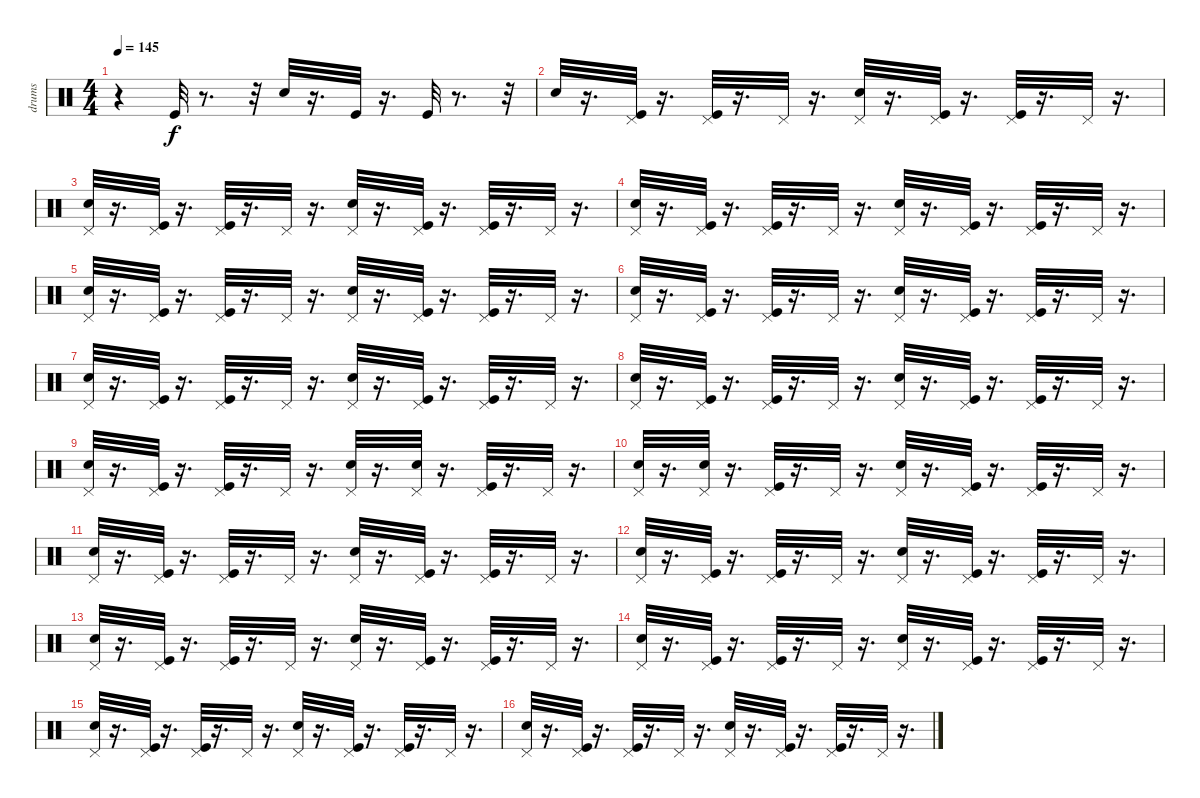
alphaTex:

\track ("drums" "drums") {instrument percussion}
\staff {score}
\articulation defaults
\ts (4 4)
\tempo 145
\clef neutral
\ks c
r.4{dy f} "Kick (hit)".32 r.8{d} r.32 "Electric Snare (hit)".32 r.16{d} "Kick (hit)".32 r.16{d} "Kick (hit)".32 r.8{d} r.32 |
"Electric Snare (hit)".32 r.16{d} ("Pedal Hi-Hat (hit)" "Kick (hit)").32 r.16{d} ("Pedal Hi-Hat (hit)" "Kick (hit)").32 r.16{d} "Pedal Hi-Hat (hit)".32 r.16{d} ("Pedal Hi-Hat (hit)" "Electric Snare (hit)").32 r.16{d} ("Pedal Hi-Hat (hit)" "Kick (hit)").32 r.16{d} ("Pedal Hi-Hat (hit)" "Kick (hit)").32 r.16{d} "Pedal Hi-Hat (hit)".32 r.16{d} |
("Pedal Hi-Hat (hit)" "Electric Snare (hit)").32 r.16{d} ("Pedal Hi-Hat (hit)" "Kick (hit)").32 r.16{d} ("Pedal Hi-Hat (hit)" "Kick (hit)").32 r.16{d} "Pedal Hi-Hat (hit)".32 r.16{d} ("Pedal Hi-Hat (hit)" "Electric Snare (hit)").32 r.16{d} ("Pedal Hi-Hat (hit)" "Kick (hit)").32 r.16{d} ("Pedal Hi-Hat (hit)" "Kick (hit)").32 r.16{d} "Pedal Hi-Hat (hit)".32 r.16{d} |
("Pedal Hi-Hat (hit)" "Electric Snare (hit)").32 r.16{d} ("Pedal Hi-Hat (hit)" "Kick (hit)").32 r.16{d} ("Pedal Hi-Hat (hit)" "Kick (hit)").32 r.16{d} "Pedal Hi-Hat (hit)".32 r.16{d} ("Pedal Hi-Hat (hit)" "Electric Snare (hit)").32 r.16{d} ("Pedal Hi-Hat (hit)" "Kick (hit)").32 r.16{d} ("Pedal Hi-Hat (hit)" "Kick (hit)").32 r.16{d} "Pedal Hi-Hat (hit)".32 r.16{d} |
("Pedal Hi-Hat (hit)" "Electric Snare (hit)").32 r.16{d} ("Pedal Hi-Hat (hit)" "Kick (hit)").32 r.16{d} ("Pedal Hi-Hat (hit)" "Kick (hit)").32 r.16{d} "Pedal Hi-Hat (hit)".32 r.16{d} ("Pedal Hi-Hat (hit)" "Electric Snare (hit)").32 r.16{d} ("Pedal Hi-Hat (hit)" "Kick (hit)").32 r.16{d} ("Pedal Hi-Hat (hit)" "Kick (hit)").32 r.16{d} "Pedal Hi-Hat (hit)".32 r.16{d} |
("Pedal Hi-Hat (hit)" "Electric Snare (hit)").32 r.16{d} ("Pedal Hi-Hat (hit)" "Kick (hit)").32 r.16{d} ("Pedal Hi-Hat (hit)" "Kick (hit)").32 r.16{d} "Pedal Hi-Hat (hit)".32 r.16{d} ("Pedal Hi-Hat (hit)" "Electric Snare (hit)").32 r.16{d} ("Pedal Hi-Hat (hit)" "Kick (hit)").32 r.16{d} ("Pedal Hi-Hat (hit)" "Kick (hit)").32 r.16{d} "Pedal Hi-Hat (hit)".32 r.16{d} |
("Pedal Hi-Hat (hit)" "Electric Snare (hit)").32 r.16{d} ("Pedal Hi-Hat (hit)" "Kick (hit)").32 r.16{d} ("Pedal Hi-Hat (hit)" "Kick (hit)").32 r.16{d} "Pedal Hi-Hat (hit)".32 r.16{d} ("Pedal Hi-Hat (hit)" "Electric Snare (hit)").32 r.16{d} ("Pedal Hi-Hat (hit)" "Kick (hit)").32 r.16{d} ("Pedal Hi-Hat (hit)" "Kick (hit)").32 r.16{d} "Pedal Hi-Hat (hit)".32 r.16{d} |
("Pedal Hi-Hat (hit)" "Electric Snare (hit)").32 r.16{d} ("Pedal Hi-Hat (hit)" "Kick (hit)").32 r.16{d} ("Pedal Hi-Hat (hit)" "Kick (hit)").32 r.16{d} "Pedal Hi-Hat (hit)".32 r.16{d} ("Pedal Hi-Hat (hit)" "Electric Snare (hit)").32 r.16{d} ("Pedal Hi-Hat (hit)" "Kick (hit)").32 r.16{d} ("Pedal Hi-Hat (hit)" "Kick (hit)").32 r.16{d} "Pedal Hi-Hat (hit)".32 r.16{d} |
("Pedal Hi-Hat (hit)" "Electric Snare (hit)").32 r.16{d} ("Kick (hit)" "Pedal Hi-Hat (hit)").32 r.16{d} ("Kick (hit)" "Pedal Hi-Hat (hit)").32 r.16{d} "Pedal Hi-Hat (hit)".32 r.16{d} ("Electric Snare (hit)" "Pedal Hi-Hat (hit)").32 r.16{d} ("Electric Snare (hit)" "Pedal Hi-Hat (hit)").32 r.16{d} ("Kick (hit)" "Pedal Hi-Hat (hit)").32 r.16{d} "Pedal Hi-Hat (hit)".32 r.16{d} |
("Electric Snare (hit)" "Pedal Hi-Hat (hit)").32 r.16{d} ("Electric Snare (hit)" "Pedal Hi-Hat (hit)").32 r.16{d} ("Kick (hit)" "Pedal Hi-Hat (hit)").32 r.16{d} "Pedal Hi-Hat (hit)".32 r.16{d} ("Electric Snare (hit)" "Pedal Hi-Hat (hit)").32 r.16{d} ("Pedal Hi-Hat (hit)" "Kick (hit)").32 r.16{d} ("Pedal Hi-Hat (hit)" "Kick (hit)").32 r.16{d} "Pedal Hi-Hat (hit)".32 r.16{d} |
("Pedal Hi-Hat (hit)" "Electric Snare (hit)").32 r.16{d} ("Pedal Hi-Hat (hit)" "Kick (hit)").32 r.16{d} ("Pedal Hi-Hat (hit)" "Kick (hit)").32 r.16{d} "Pedal Hi-Hat (hit)".32 r.16{d} ("Pedal Hi-Hat (hit)" "Electric Snare (hit)").32 r.16{d} ("Pedal Hi-Hat (hit)" "Kick (hit)").32 r.16{d} ("Pedal Hi-Hat (hit)" "Kick (hit)").32 r.16{d} "Pedal Hi-Hat (hit)".32 r.16{d} |
("Pedal Hi-Hat (hit)" "Electric Snare (hit)").32 r.16{d} ("Pedal Hi-Hat (hit)" "Kick (hit)").32 r.16{d} ("Pedal Hi-Hat (hit)" "Kick (hit)").32 r.16{d} "Pedal Hi-Hat (hit)".32 r.16{d} ("Pedal Hi-Hat (hit)" "Electric Snare (hit)").32 r.16{d} ("Pedal Hi-Hat (hit)" "Kick (hit)").32 r.16{d} ("Pedal Hi-Hat (hit)" "Kick (hit)").32 r.16{d} "Pedal Hi-Hat (hit)".32 r.16{d} |
("Pedal Hi-Hat (hit)" "Electric Snare (hit)").32 r.16{d} ("Pedal Hi-Hat (hit)" "Kick (hit)").32 r.16{d} ("Pedal Hi-Hat (hit)" "Kick (hit)").32 r.16{d} "Pedal Hi-Hat (hit)".32 r.16{d} ("Pedal Hi-Hat (hit)" "Electric Snare (hit)").32 r.16{d} ("Pedal Hi-Hat (hit)" "Kick (hit)").32 r.16{d} ("Pedal Hi-Hat (hit)" "Kick (hit)").32 r.16{d} "Pedal Hi-Hat (hit)".32 r.16{d} |
("Pedal Hi-Hat (hit)" "Electric Snare (hit)").32 r.16{d} ("Pedal Hi-Hat (hit)" "Kick (hit)").32 r.16{d} ("Pedal Hi-Hat (hit)" "Kick (hit)").32 r.16{d} "Pedal Hi-Hat (hit)".32 r.16{d} ("Pedal Hi-Hat (hit)" "Electric Snare (hit)").32 r.16{d} ("Pedal Hi-Hat (hit)" "Kick (hit)").32 r.16{d} ("Pedal Hi-Hat (hit)" "Kick (hit)").32 r.16{d} "Pedal Hi-Hat (hit)".32 r.16{d} |
("Pedal Hi-Hat (hit)" "Electric Snare (hit)").32 r.16{d} ("Pedal Hi-Hat (hit)" "Kick (hit)").32 r.16{d} ("Pedal Hi-Hat (hit)" "Kick (hit)").32 r.16{d} "Pedal Hi-Hat (hit)".32 r.16{d} ("Pedal Hi-Hat (hit)" "Electric Snare (hit)").32 r.16{d} ("Pedal Hi-Hat (hit)" "Kick (hit)").32 r.16{d} ("Pedal Hi-Hat (hit)" "Kick (hit)").32 r.16{d} "Pedal Hi-Hat (hit)".32 r.16{d} |
("Pedal Hi-Hat (hit)" "Electric Snare (hit)").32 r.16{d} ("Pedal Hi-Hat (hit)" "Kick (hit)").32 r.16{d} ("Pedal Hi-Hat (hit)" "Kick (hit)").32 r.16{d} "Pedal Hi-Hat (hit)".32 r.16{d} ("Pedal Hi-Hat (hit)" "Electric Snare (hit)").32 r.16{d} ("Pedal Hi-Hat (hit)" "Kick (hit)").32 r.16{d} ("Pedal Hi-Hat (hit)" "Kick (hit)").32 r.16{d} "Pedal Hi-Hat (hit)".32 r.16{d}
